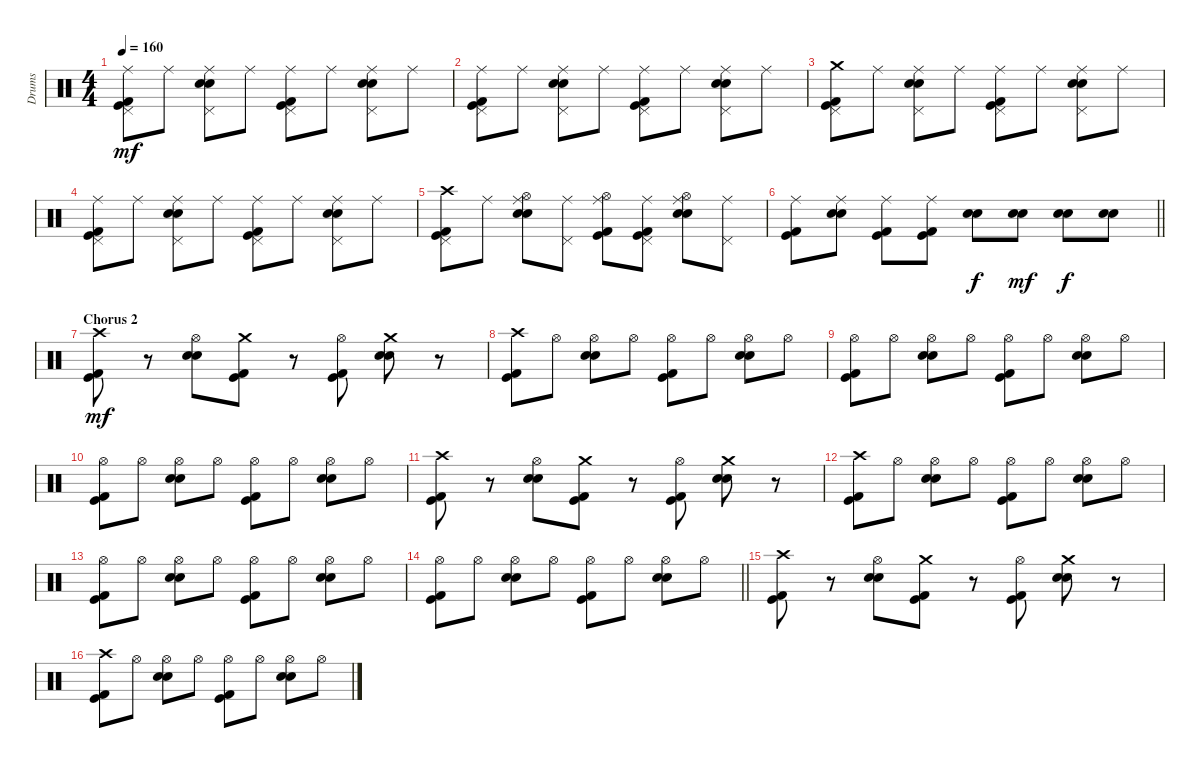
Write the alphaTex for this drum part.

\track ("Drums" "Drums") {instrument percussion}
\staff {score}
\articulation defaults
\ts (4 4)
\tempo 160
\clef neutral
\ks c
("Ride (middle)" "Pedal Hi-Hat (hit)" "Kick (hit) 2" "Kick (hit)").8{dy mf} "Ride (middle)".8 ("Ride (middle)" "Pedal Hi-Hat (hit)" "Snare (hit) 2" "Electric Snare (hit)").8 "Ride (middle)".8 ("Ride (middle)" "Pedal Hi-Hat (hit)" "Kick (hit) 2" "Kick (hit)").8 "Ride (middle)".8 ("Ride (middle)" "Pedal Hi-Hat (hit)" "Snare (hit) 2" "Electric Snare (hit)").8 "Ride (middle)".8 |
("Ride (middle)" "Pedal Hi-Hat (hit)" "Kick (hit) 2" "Kick (hit)").8 "Ride (middle)".8 ("Ride (middle)" "Pedal Hi-Hat (hit)" "Snare (hit) 2" "Electric Snare (hit)").8 "Ride (middle)".8 ("Ride (middle)" "Pedal Hi-Hat (hit)" "Kick (hit) 2" "Kick (hit)").8 "Ride (middle)".8 ("Ride (middle)" "Pedal Hi-Hat (hit)" "Snare (hit) 2" "Electric Snare (hit)").8 "Ride (middle)".8 |
("Crash medium (hit)" "Pedal Hi-Hat (hit)" "Kick (hit) 2" "Kick (hit)").8 "Ride (middle)".8 ("Ride (middle)" "Pedal Hi-Hat (hit)" "Snare (hit) 2" "Electric Snare (hit)").8 "Ride (middle)".8 ("Ride (middle)" "Pedal Hi-Hat (hit)" "Kick (hit) 2" "Kick (hit)").8 "Ride (middle)".8 ("Ride (middle)" "Pedal Hi-Hat (hit)" "Snare (hit) 2" "Electric Snare (hit)").8 "Ride (middle)".8 |
("Ride (middle)" "Pedal Hi-Hat (hit)" "Kick (hit) 2" "Kick (hit)").8 "Ride (middle)".8 ("Ride (middle)" "Pedal Hi-Hat (hit)" "Snare (hit) 2" "Electric Snare (hit)").8 "Ride (middle)".8 ("Ride (middle)" "Pedal Hi-Hat (hit)" "Kick (hit) 2" "Kick (hit)").8 "Ride (middle)".8 ("Ride (middle)" "Pedal Hi-Hat (hit)" "Snare (hit) 2" "Electric Snare (hit)").8 "Ride (middle)".8 |
("Crash high (hit)" "Pedal Hi-Hat (hit)" "Kick (hit) 2" "Kick (hit)").8 "Ride (middle)".8 ("Ride (middle)" "Hi-Hat (open)" "Snare (hit) 2" "Electric Snare (hit)").8 ("Ride (middle)" "Pedal Hi-Hat (hit)").8 ("Ride (middle)" "Hi-Hat (open)" "Kick (hit) 2" "Kick (hit)").8 ("Ride (middle)" "Pedal Hi-Hat (hit)" "Kick (hit) 2" "Kick (hit)").8 ("Ride (middle)" "Hi-Hat (open)" "Snare (hit) 2" "Electric Snare (hit)").8 ("Ride (middle)" "Pedal Hi-Hat (hit)").8 |
\barLineRight lightlight
("Ride (middle)" "Kick (hit) 2" "Kick (hit)").8 ("Ride (middle)" "Snare (hit) 2" "Electric Snare (hit)").8 ("Ride (middle)" "Kick (hit) 2" "Kick (hit)").8 ("Ride (middle)" "Kick (hit) 2" "Kick (hit)").8 ("Snare (hit) 2" "Electric Snare (hit)").8{dy f} ("Snare (hit) 2" "Electric Snare (hit)").8{dy mf} ("Snare (hit) 2" "Electric Snare (hit)").8{dy f} ("Snare (hit) 2" "Electric Snare (hit)").8 |
\section ("" "Chorus 2")
("Crash high (hit)" "Kick (hit) 2" "Kick (hit)").8{dy mf} r.8 ("Hi-Hat (open)" "Snare (hit) 2" "Electric Snare (hit)").8 ("Crash medium (hit)" "Kick (hit) 2" "Kick (hit)").8 r.8 ("Hi-Hat (open)" "Kick (hit) 2" "Kick (hit)").8 ("Crash medium (hit)" "Snare (hit) 2" "Electric Snare (hit)").8 r.8 |
("Crash high (hit)" "Kick (hit) 2" "Kick (hit)").8 "Hi-Hat (open)".8 ("Hi-Hat (open)" "Snare (hit) 2" "Electric Snare (hit)").8 "Hi-Hat (open)".8 ("Hi-Hat (open)" "Kick (hit) 2" "Kick (hit)").8 "Hi-Hat (open)".8 ("Hi-Hat (open)" "Snare (hit) 2" "Electric Snare (hit)").8 "Hi-Hat (open)".8 |
("Hi-Hat (open)" "Kick (hit) 2" "Kick (hit)").8 "Hi-Hat (open)".8 ("Hi-Hat (open)" "Snare (hit) 2" "Electric Snare (hit)").8 "Hi-Hat (open)".8 ("Hi-Hat (open)" "Kick (hit) 2" "Kick (hit)").8 "Hi-Hat (open)".8 ("Hi-Hat (open)" "Snare (hit) 2" "Electric Snare (hit)").8 "Hi-Hat (open)".8 |
("Hi-Hat (open)" "Kick (hit) 2" "Kick (hit)").8 "Hi-Hat (open)".8 ("Hi-Hat (open)" "Snare (hit) 2" "Electric Snare (hit)").8 "Hi-Hat (open)".8 ("Hi-Hat (open)" "Kick (hit) 2" "Kick (hit)").8 "Hi-Hat (open)".8 ("Hi-Hat (open)" "Snare (hit) 2" "Electric Snare (hit)").8 "Hi-Hat (open)".8 |
("Crash high (hit)" "Kick (hit) 2" "Kick (hit)").8 r.8 ("Hi-Hat (open)" "Snare (hit) 2" "Electric Snare (hit)").8 ("Crash medium (hit)" "Kick (hit) 2" "Kick (hit)").8 r.8 ("Hi-Hat (open)" "Kick (hit) 2" "Kick (hit)").8 ("Crash medium (hit)" "Snare (hit) 2" "Electric Snare (hit)").8 r.8 |
("Crash high (hit)" "Kick (hit) 2" "Kick (hit)").8 "Hi-Hat (open)".8 ("Hi-Hat (open)" "Snare (hit) 2" "Electric Snare (hit)").8 "Hi-Hat (open)".8 ("Hi-Hat (open)" "Kick (hit) 2" "Kick (hit)").8 "Hi-Hat (open)".8 ("Hi-Hat (open)" "Snare (hit) 2" "Electric Snare (hit)").8 "Hi-Hat (open)".8 |
("Hi-Hat (open)" "Kick (hit) 2" "Kick (hit)").8 "Hi-Hat (open)".8 ("Hi-Hat (open)" "Snare (hit) 2" "Electric Snare (hit)").8 "Hi-Hat (open)".8 ("Hi-Hat (open)" "Kick (hit) 2" "Kick (hit)").8 "Hi-Hat (open)".8 ("Hi-Hat (open)" "Snare (hit) 2" "Electric Snare (hit)").8 "Hi-Hat (open)".8 |
\barLineRight lightlight
("Hi-Hat (open)" "Kick (hit) 2" "Kick (hit)").8 "Hi-Hat (open)".8 ("Hi-Hat (open)" "Snare (hit) 2" "Electric Snare (hit)").8 "Hi-Hat (open)".8 ("Hi-Hat (open)" "Kick (hit) 2" "Kick (hit)").8 "Hi-Hat (open)".8 ("Hi-Hat (open)" "Snare (hit) 2" "Electric Snare (hit)").8 "Hi-Hat (open)".8 |
("Crash high (hit)" "Kick (hit) 2" "Kick (hit)").8 r.8 ("Hi-Hat (open)" "Snare (hit) 2" "Electric Snare (hit)").8 ("Crash medium (hit)" "Kick (hit) 2" "Kick (hit)").8 r.8 ("Hi-Hat (open)" "Kick (hit) 2" "Kick (hit)").8 ("Crash medium (hit)" "Snare (hit) 2" "Electric Snare (hit)").8 r.8 |
("Crash high (hit)" "Kick (hit) 2" "Kick (hit)").8 "Hi-Hat (open)".8 ("Hi-Hat (open)" "Snare (hit) 2" "Electric Snare (hit)").8 "Hi-Hat (open)".8 ("Hi-Hat (open)" "Kick (hit) 2" "Kick (hit)").8 "Hi-Hat (open)".8 ("Hi-Hat (open)" "Snare (hit) 2" "Electric Snare (hit)").8 "Hi-Hat (open)".8
